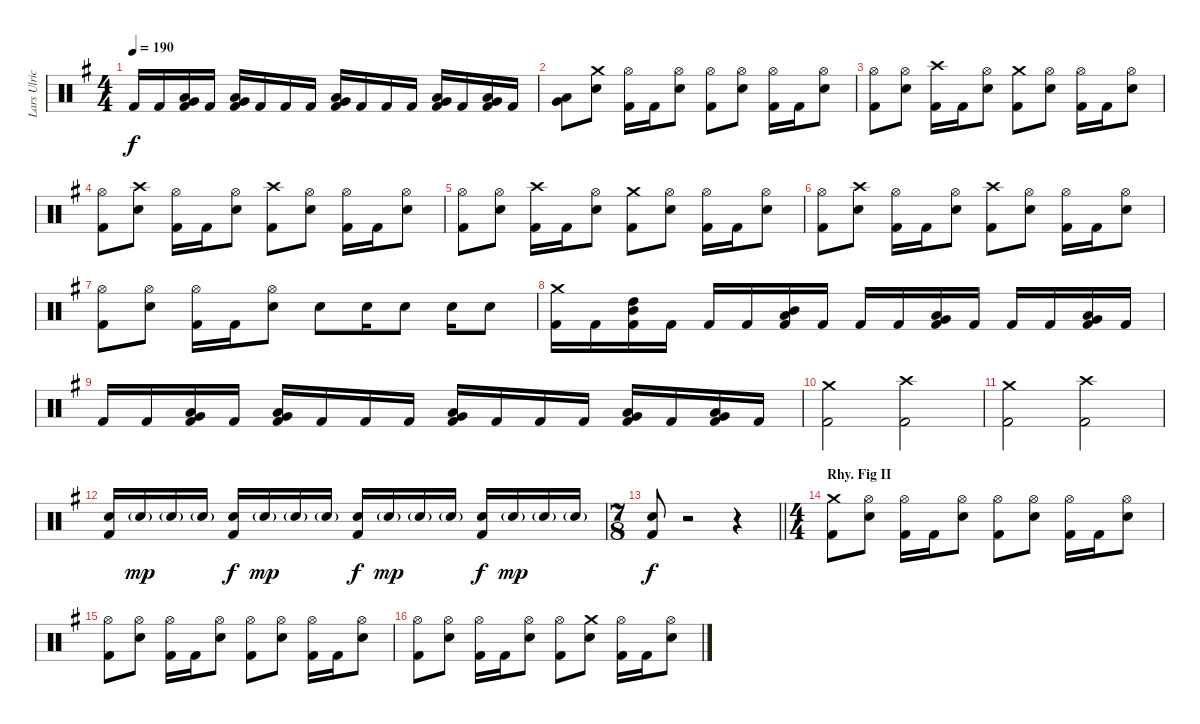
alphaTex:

\track ("Lars Ulrich - Drums" "Lars Ulric") {instrument percussion}
\staff {score}
\articulation defaults
\ts (4 4)
\tempo 190
\clef neutral
\ks eminor "Kick (hit) 2".16{dy f} "Kick (hit) 2".16
("Very Low Tom (hit)" "Low Floor Tom (hit)" "Kick (hit) 2").16 "Kick (hit) 2".16 ("Very Low Tom (hit)" "Low Floor Tom (hit)" "Kick (hit) 2").16 "Kick (hit) 2".16 "Kick (hit) 2".16 "Kick (hit) 2".16 ("Very Low Tom (hit)" "Low Floor Tom (hit)" "Kick (hit) 2").16 "Kick (hit) 2".16 "Kick (hit) 2".16 "Kick (hit) 2".16 ("Very Low Tom (hit)" "Low Floor Tom (hit)" "Kick (hit) 2").16 "Kick (hit) 2".16 ("Very Low Tom (hit)" "Low Floor Tom (hit)" "Kick (hit) 2").16 "Kick (hit) 2".16 |
("Very Low Tom (hit)" "Low Floor Tom (hit)").8 ("Crash medium (hit)" "Snare (hit) 2").8 ("Hi-Hat (open)" "Kick (hit) 2").16 "Kick (hit) 2".16 ("Hi-Hat (open)" "Snare (hit) 2").8 ("Hi-Hat (open)" "Kick (hit) 2").8 ("Hi-Hat (open)" "Snare (hit) 2").8 ("Hi-Hat (open)" "Kick (hit) 2").16 "Kick (hit) 2".16 ("Hi-Hat (open)" "Snare (hit) 2").8 |
("Hi-Hat (open)" "Kick (hit) 2").8 ("Hi-Hat (open)" "Snare (hit) 2").8 ("Crash high (hit)" "Kick (hit) 2").16 "Kick (hit) 2".16 ("Hi-Hat (open)" "Snare (hit) 2").8 ("Crash medium (hit)" "Kick (hit) 2").8 ("Hi-Hat (open)" "Snare (hit) 2").8 ("Hi-Hat (open)" "Kick (hit) 2").16 "Kick (hit) 2".16 ("Hi-Hat (open)" "Snare (hit) 2").8 |
("Hi-Hat (open)" "Kick (hit) 2").8 ("Crash high (hit)" "Snare (hit) 2").8 ("Hi-Hat (open)" "Kick (hit) 2").16 "Kick (hit) 2".16 ("Hi-Hat (open)" "Snare (hit) 2").8 ("Crash high (hit)" "Kick (hit) 2").8 ("Hi-Hat (open)" "Snare (hit) 2").8 ("Hi-Hat (open)" "Kick (hit) 2").16 "Kick (hit) 2".16 ("Hi-Hat (open)" "Snare (hit) 2").8 |
("Hi-Hat (open)" "Kick (hit) 2").8 ("Hi-Hat (open)" "Snare (hit) 2").8 ("Crash high (hit)" "Kick (hit) 2").16 "Kick (hit) 2".16 ("Hi-Hat (open)" "Snare (hit) 2").8 ("Crash medium (hit)" "Kick (hit) 2").8 ("Hi-Hat (open)" "Snare (hit) 2").8 ("Hi-Hat (open)" "Kick (hit) 2").16 "Kick (hit) 2".16 ("Hi-Hat (open)" "Snare (hit) 2").8 |
("Hi-Hat (open)" "Kick (hit) 2").8 ("Crash high (hit)" "Snare (hit) 2").8 ("Hi-Hat (open)" "Kick (hit) 2").16 "Kick (hit) 2".16 ("Hi-Hat (open)" "Snare (hit) 2").8 ("Crash high (hit)" "Kick (hit) 2").8 ("Hi-Hat (open)" "Snare (hit) 2").8 ("Hi-Hat (open)" "Kick (hit) 2").16 "Kick (hit) 2".16 ("Hi-Hat (open)" "Snare (hit) 2").8 |
("Hi-Hat (open)" "Kick (hit) 2").8 ("Hi-Hat (open)" "Snare (hit) 2").8 ("Hi-Hat (open)" "Kick (hit) 2").16 "Kick (hit) 2".16 ("Hi-Hat (open)" "Snare (hit) 2").8 "Snare (hit) 2".8 "Snare (hit) 2".16 "Snare (hit) 2".8 "Snare (hit) 2".16 "Snare (hit) 2".8 |
("Crash medium (hit)" "Kick (hit) 2").16 "Kick (hit) 2".16 ("High Tom (hit)" "Mid Tom (hit)" "Kick (hit) 2").16 "Kick (hit) 2".16 "Kick (hit) 2".16 "Kick (hit) 2".16 ("Mid Tom (hit)" "Low Tom (hit)" "Kick (hit) 2").16 "Kick (hit) 2".16 "Kick (hit) 2".16 "Kick (hit) 2".16 ("Low Tom (hit)" "Very Low Tom (hit)" "Kick (hit) 2").16 "Kick (hit) 2".16 "Kick (hit) 2".16 "Kick (hit) 2".16 ("Very Low Tom (hit)" "Low Floor Tom (hit)" "Kick (hit) 2").16 "Kick (hit) 2".16 |
"Kick (hit) 2".16 "Kick (hit) 2".16 ("Very Low Tom (hit)" "Low Floor Tom (hit)" "Kick (hit) 2").16 "Kick (hit) 2".16 ("Very Low Tom (hit)" "Low Floor Tom (hit)" "Kick (hit) 2").16 "Kick (hit) 2".16 "Kick (hit) 2".16 "Kick (hit) 2".16 ("Very Low Tom (hit)" "Low Floor Tom (hit)" "Kick (hit) 2").16 "Kick (hit) 2".16 "Kick (hit) 2".16 "Kick (hit) 2".16 ("Very Low Tom (hit)" "Low Floor Tom (hit)" "Kick (hit) 2").16 "Kick (hit) 2".16 ("Very Low Tom (hit)" "Low Floor Tom (hit)" "Kick (hit) 2").16 "Kick (hit) 2".16 |
("Crash medium (hit)" "Kick (hit) 2").2 ("Crash high (hit)" "Kick (hit) 2").2 |
("Crash medium (hit)" "Kick (hit) 2").2 ("Crash high (hit)" "Kick (hit) 2").2 |
("Snare (hit) 2" "Kick (hit) 2").16 "Snare (hit) 2"{g}.16{dy mp} "Snare (hit) 2"{g}.16 "Snare (hit) 2"{g}.16 ("Snare (hit) 2" "Kick (hit) 2").16{dy f} "Snare (hit) 2"{g}.16{dy mp} "Snare (hit) 2"{g}.16 "Snare (hit) 2"{g}.16 ("Snare (hit) 2" "Kick (hit) 2").16{dy f} "Snare (hit) 2"{g}.16{dy mp} "Snare (hit) 2"{g}.16 "Snare (hit) 2"{g}.16 ("Snare (hit) 2" "Kick (hit) 2").16{dy f} "Snare (hit) 2"{g}.16{dy mp} "Snare (hit) 2"{g}.16 "Snare (hit) 2"{g}.16 |
\ts (7 8)
\barLineRight lightlight
("Snare (hit) 2" "Kick (hit) 2").8{dy f} r.2 r.4 |
\ts (4 4)
\section ("" "Rhy. Fig II")
("Crash medium (hit)" "Kick (hit) 2").8 ("Hi-Hat (open)" "Snare (hit) 2").8 ("Hi-Hat (open)" "Kick (hit) 2").16 "Kick (hit) 2".16 ("Hi-Hat (open)" "Snare (hit) 2").8 ("Hi-Hat (open)" "Kick (hit) 2").8 ("Hi-Hat (open)" "Snare (hit) 2").8 ("Hi-Hat (open)" "Kick (hit) 2").16 "Kick (hit) 2".16 ("Hi-Hat (open)" "Snare (hit) 2").8 |
("Hi-Hat (open)" "Kick (hit) 2").8 ("Hi-Hat (open)" "Snare (hit) 2").8 ("Hi-Hat (open)" "Kick (hit) 2").16 "Kick (hit) 2".16 ("Hi-Hat (open)" "Snare (hit) 2").8 ("Hi-Hat (open)" "Kick (hit) 2").8 ("Hi-Hat (open)" "Snare (hit) 2").8 ("Hi-Hat (open)" "Kick (hit) 2").16 "Kick (hit) 2".16 ("Hi-Hat (open)" "Snare (hit) 2").8 |
("Hi-Hat (open)" "Kick (hit) 2").8 ("Hi-Hat (open)" "Snare (hit) 2").8 ("Hi-Hat (open)" "Kick (hit) 2").16 "Kick (hit) 2".16 ("Hi-Hat (open)" "Snare (hit) 2").8 ("Hi-Hat (open)" "Kick (hit) 2").8 ("Crash medium (hit)" "Snare (hit) 2").8 ("Hi-Hat (open)" "Kick (hit) 2").16 "Kick (hit) 2".16 ("Hi-Hat (open)" "Snare (hit) 2").8
